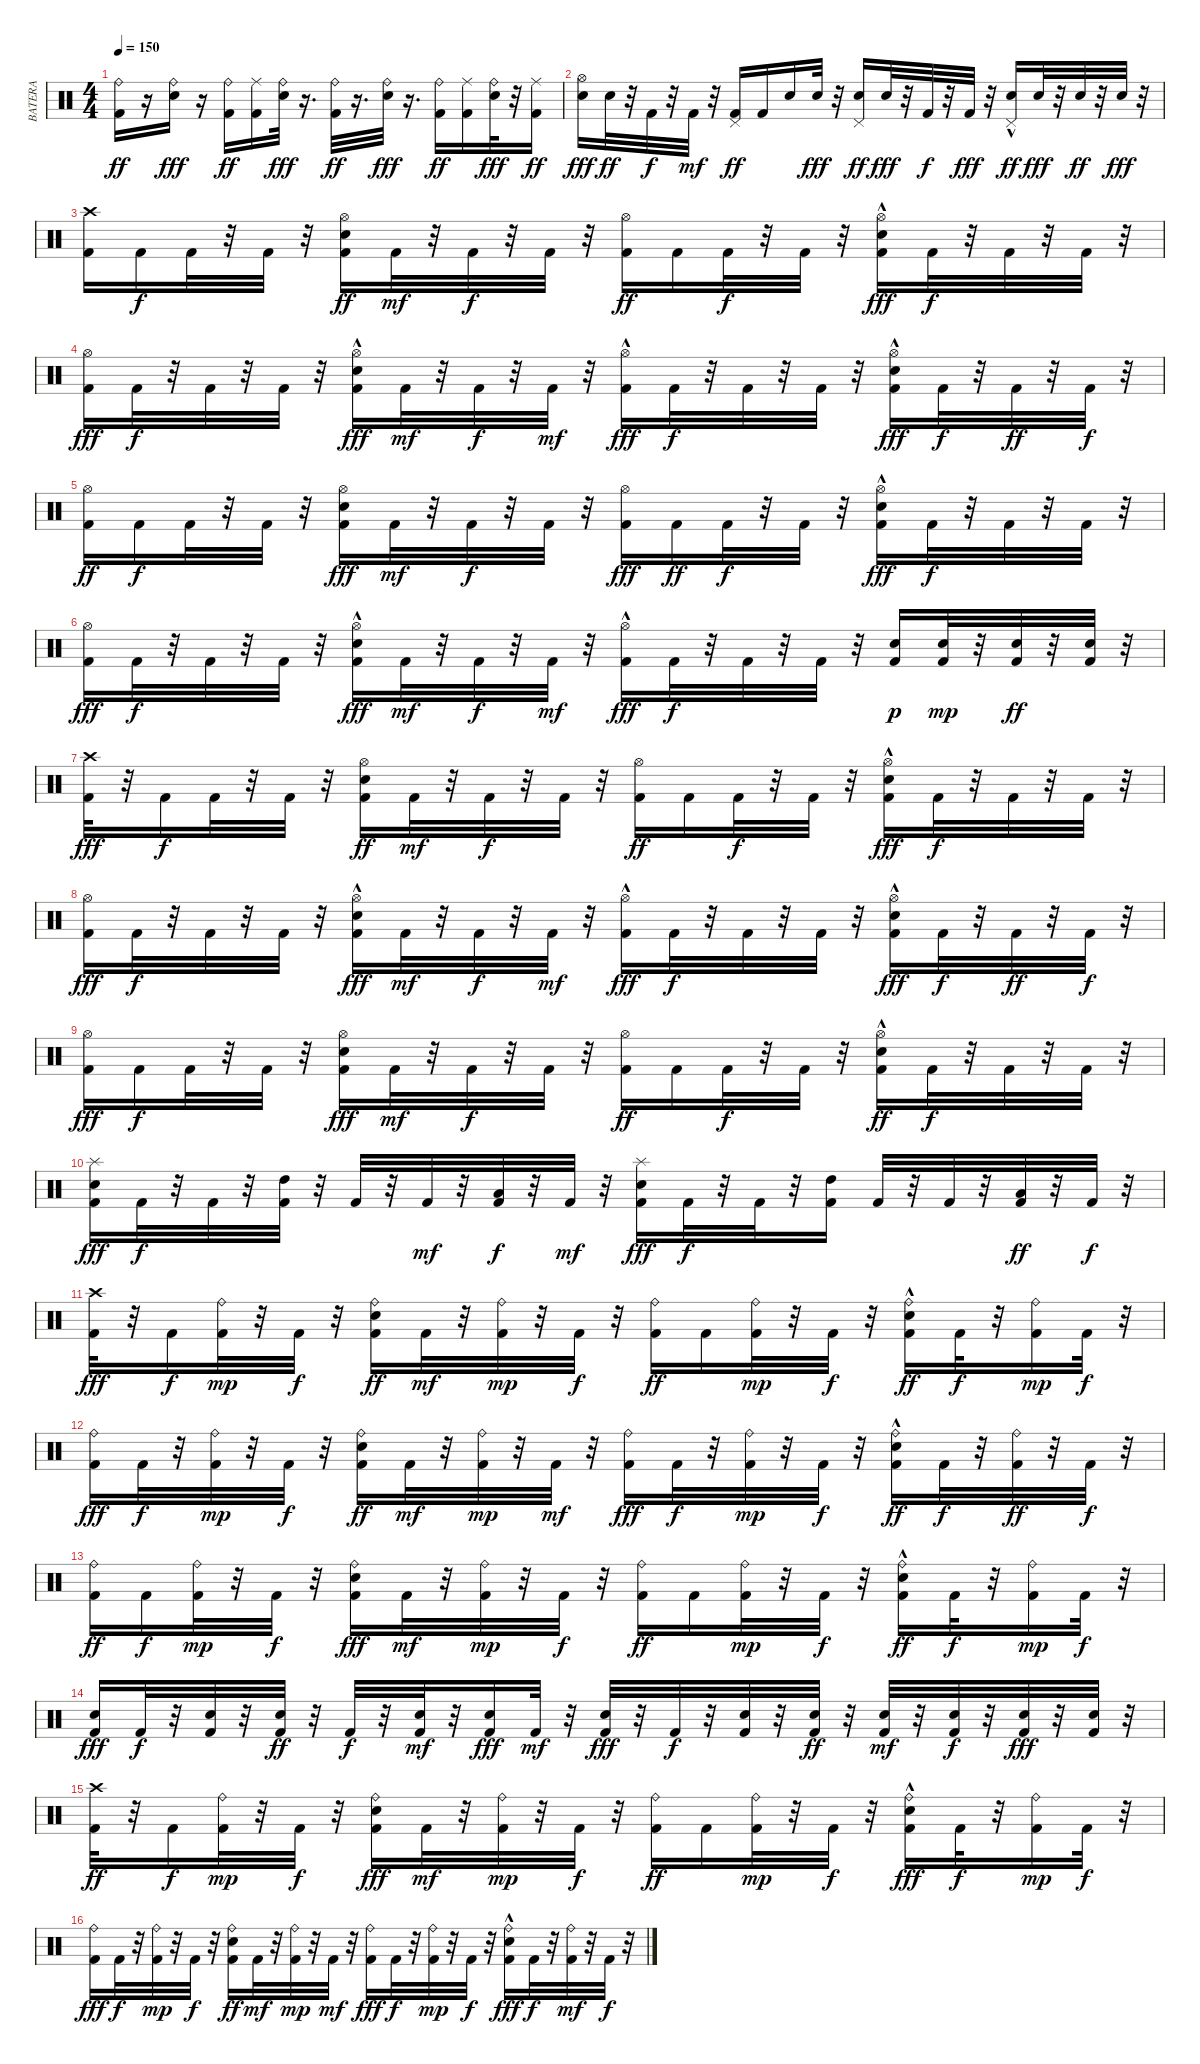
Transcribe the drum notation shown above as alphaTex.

\track ("BATERA" "BATERA") {instrument percussion}
\staff {score}
\articulation defaults
\ts (4 4)
\tempo 150
\clef neutral
\ks c
("Ride (bell)" "Kick (hit) 2").16{dy ff} r.16 ("Electric Snare (hit)" "Ride (bell)").16{dy fff} r.16 ("Ride (bell)" "Kick (hit) 2").16{dy ff} ("Ride (middle)" "Kick (hit) 2").16 ("Electric Snare (hit)" "Ride (bell)").32{dy fff} r.16{d} ("Ride (bell)" "Kick (hit) 2").32{dy ff} r.16{d} ("Electric Snare (hit)" "Ride (bell)").32{dy fff} r.16{d} ("Ride (bell)" "Kick (hit) 2").16{dy ff} ("Kick (hit) 2" "Ride (middle)").16 ("Ride (bell)" "Electric Snare (hit)").32{dy fff} r.32 ("Kick (hit) 2" "Ride (middle)").16{dy ff} |
("Electric Snare (hit)" "Hi-Hat (open)").16{dy fff} "Electric Snare (hit)".32{dy ff} r.32 "Kick (hit) 2".32{dy f} r.32 "Kick (hit) 2".32{dy mf} r.32 ("Kick (hit) 2" "Pedal Hi-Hat (hit)").16{dy ff} "Kick (hit) 2".16 "Electric Snare (hit)".16 "Electric Snare (hit)".32{dy fff} r.32 ("Electric Snare (hit)" "Pedal Hi-Hat (hit)").16{dy ff} "Electric Snare (hit)".32{dy fff} r.32 "Kick (hit) 2".32{dy f} r.32 "Kick (hit) 2".32{dy fff} r.32 ("Electric Snare (hit)" "Pedal Hi-Hat (hit)"{hac}).16{dy ff} "Electric Snare (hit)".32{dy fff} r.32 "Electric Snare (hit)".32{dy ff} r.32 "Electric Snare (hit)".32{dy fff} r.32 |
("Kick (hit) 2" "Crash high (hit)").16 "Kick (hit) 2".16{dy f} "Kick (hit) 2".32 r.32 "Kick (hit) 2".32 r.32 ("Electric Snare (hit)" "Hi-Hat (open)" "Kick (hit) 2").16{dy ff} "Kick (hit) 2".32{dy mf} r.32 "Kick (hit) 2".32{dy f} r.32 "Kick (hit) 2".32 r.32 ("Hi-Hat (open)" "Kick (hit) 2").16{dy ff} "Kick (hit) 2".16 "Kick (hit) 2".32{dy f} r.32 "Kick (hit) 2".32 r.32 ("Kick (hit) 2" "Electric Snare (hit)"{hac} "Hi-Hat (open)").16{dy fff} "Kick (hit) 2".32{dy f} r.32 "Kick (hit) 2".32 r.32 "Kick (hit) 2".32 r.32 |
("Hi-Hat (open)" "Kick (hit) 2").16{dy fff} "Kick (hit) 2".32{dy f} r.32 "Kick (hit) 2".32 r.32 "Kick (hit) 2".32 r.32 ("Kick (hit) 2" "Hi-Hat (open)"{hac} "Electric Snare (hit)").16{dy fff} "Kick (hit) 2".32{dy mf} r.32 "Kick (hit) 2".32{dy f} r.32 "Kick (hit) 2".32{dy mf} r.32 ("Hi-Hat (open)"{hac} "Kick (hit) 2").16{dy fff} "Kick (hit) 2".32{dy f} r.32 "Kick (hit) 2".32 r.32 "Kick (hit) 2".32 r.32 ("Electric Snare (hit)"{hac} "Hi-Hat (open)"{hac} "Kick (hit) 2").16{dy fff} "Kick (hit) 2".32{dy f} r.32 "Kick (hit) 2".32{dy ff} r.32 "Kick (hit) 2".32{dy f} r.32 |
("Hi-Hat (open)" "Kick (hit) 2").16{dy ff} "Kick (hit) 2".16{dy f} "Kick (hit) 2".32 r.32 "Kick (hit) 2".32 r.32 ("Kick (hit) 2" "Hi-Hat (open)" "Electric Snare (hit)").16{dy fff} "Kick (hit) 2".32{dy mf} r.32 "Kick (hit) 2".32{dy f} r.32 "Kick (hit) 2".32 r.32 ("Kick (hit) 2" "Hi-Hat (open)").16{dy fff} "Kick (hit) 2".16{dy ff} "Kick (hit) 2".32{dy f} r.32 "Kick (hit) 2".32 r.32 ("Kick (hit) 2" "Hi-Hat (open)" "Electric Snare (hit)"{hac}).16{dy fff} "Kick (hit) 2".32{dy f} r.32 "Kick (hit) 2".32 r.32 "Kick (hit) 2".32 r.32 |
("Kick (hit) 2" "Hi-Hat (open)").16{dy fff} "Kick (hit) 2".32{dy f} r.32 "Kick (hit) 2".32 r.32 "Kick (hit) 2".32 r.32 ("Electric Snare (hit)" "Kick (hit) 2" "Hi-Hat (open)"{hac}).16{dy fff} "Kick (hit) 2".32{dy mf} r.32 "Kick (hit) 2".32{dy f} r.32 "Kick (hit) 2".32{dy mf} r.32 ("Hi-Hat (open)"{hac} "Kick (hit) 2").16{dy fff} "Kick (hit) 2".32{dy f} r.32 "Kick (hit) 2".32 r.32 "Kick (hit) 2".32 r.32 ("Electric Snare (hit)" "Kick (hit) 2").16{dy p} ("Electric Snare (hit)" "Kick (hit) 2").32{dy mp} r.32 ("Kick (hit) 2" "Electric Snare (hit)").32{dy ff} r.32 ("Electric Snare (hit)" "Kick (hit) 2").32 r.32 |
("Kick (hit) 2" "Crash high (hit)").32{dy fff} r.32 "Kick (hit) 2".16{dy f} "Kick (hit) 2".32 r.32 "Kick (hit) 2".32 r.32 ("Electric Snare (hit)" "Hi-Hat (open)" "Kick (hit) 2").16{dy ff} "Kick (hit) 2".32{dy mf} r.32 "Kick (hit) 2".32{dy f} r.32 "Kick (hit) 2".32 r.32 ("Hi-Hat (open)" "Kick (hit) 2").16{dy ff} "Kick (hit) 2".16 "Kick (hit) 2".32{dy f} r.32 "Kick (hit) 2".32 r.32 ("Hi-Hat (open)" "Kick (hit) 2" "Electric Snare (hit)"{hac}).16{dy fff} "Kick (hit) 2".32{dy f} r.32 "Kick (hit) 2".32 r.32 "Kick (hit) 2".32 r.32 |
("Hi-Hat (open)" "Kick (hit) 2").16{dy fff} "Kick (hit) 2".32{dy f} r.32 "Kick (hit) 2".32 r.32 "Kick (hit) 2".32 r.32 ("Kick (hit) 2" "Hi-Hat (open)"{hac} "Electric Snare (hit)").16{dy fff} "Kick (hit) 2".32{dy mf} r.32 "Kick (hit) 2".32{dy f} r.32 "Kick (hit) 2".32{dy mf} r.32 ("Kick (hit) 2" "Hi-Hat (open)"{hac}).16{dy fff} "Kick (hit) 2".32{dy f} r.32 "Kick (hit) 2".32 r.32 "Kick (hit) 2".32 r.32 ("Hi-Hat (open)"{hac} "Kick (hit) 2" "Electric Snare (hit)"{hac}).16{dy fff} "Kick (hit) 2".32{dy f} r.32 "Kick (hit) 2".32{dy ff} r.32 "Kick (hit) 2".32{dy f} r.32 |
("Kick (hit) 2" "Hi-Hat (open)").16{dy fff} "Kick (hit) 2".16{dy f} "Kick (hit) 2".32 r.32 "Kick (hit) 2".32 r.32 ("Hi-Hat (open)" "Kick (hit) 2" "Electric Snare (hit)").16{dy fff} "Kick (hit) 2".32{dy mf} r.32 "Kick (hit) 2".32{dy f} r.32 "Kick (hit) 2".32 r.32 ("Hi-Hat (open)" "Kick (hit) 2").16{dy ff} "Kick (hit) 2".16 "Kick (hit) 2".32{dy f} r.32 "Kick (hit) 2".32 r.32 ("Hi-Hat (open)" "Electric Snare (hit)"{hac} "Kick (hit) 2").16{dy ff} "Kick (hit) 2".32{dy f} r.32 "Kick (hit) 2".32 r.32 "Kick (hit) 2".32 r.32 |
("Splash (hit)" "Electric Snare (hit)" "Kick (hit) 2").16{dy fff} "Kick (hit) 2".32{dy f} r.32 "Kick (hit) 2".32 r.32 ("High Tom (hit)" "Kick (hit) 2").32 r.32 "Kick (hit) 2".32 r.32 "Kick (hit) 2".32{dy mf} r.32 ("Kick (hit) 2" "Low Tom (hit)").32{dy f} r.32 "Kick (hit) 2".32{dy mf} r.32 ("Electric Snare (hit)" "Splash (hit)" "Kick (hit) 2").16{dy fff} "Kick (hit) 2".32{dy f} r.32 "Kick (hit) 2".32 r.32 ("Kick (hit) 2" "High Tom (hit)").16 "Kick (hit) 2".32 r.32 "Kick (hit) 2".32 r.32 ("Low Tom (hit)" "Kick (hit) 2").32{dy ff} r.32 "Kick (hit) 2".32{dy f} r.32 |
("Kick (hit) 2" "Crash high (hit)").32{dy fff} r.32 "Kick (hit) 2".16{dy f} ("Ride (bell)" "Kick (hit) 2").32{dy mp} r.32 "Kick (hit) 2".32{dy f} r.32 ("Ride (bell)" "Electric Snare (hit)" "Kick (hit) 2").16{dy ff} "Kick (hit) 2".32{dy mf} r.32 ("Ride (bell)" "Kick (hit) 2").32{dy mp} r.32 "Kick (hit) 2".32{dy f} r.32 ("Kick (hit) 2" "Ride (bell)").16{dy ff} "Kick (hit) 2".16 ("Kick (hit) 2" "Ride (bell)").32{dy mp} r.32 "Kick (hit) 2".32{dy f} r.32 ("Electric Snare (hit)"{hac} "Ride (bell)" "Kick (hit) 2").16{dy ff} "Kick (hit) 2".32{dy f} r.32 ("Ride (bell)" "Kick (hit) 2").16{dy mp} "Kick (hit) 2".32{dy f} r.32 |
("Ride (bell)" "Kick (hit) 2").16{dy fff} "Kick (hit) 2".32{dy f} r.32 ("Kick (hit) 2" "Ride (bell)").32{dy mp} r.32 "Kick (hit) 2".32{dy f} r.32 ("Electric Snare (hit)" "Kick (hit) 2" "Ride (bell)").16{dy ff} "Kick (hit) 2".32{dy mf} r.32 ("Ride (bell)" "Kick (hit) 2").32{dy mp} r.32 "Kick (hit) 2".32{dy mf} r.32 ("Ride (bell)" "Kick (hit) 2").16{dy fff} "Kick (hit) 2".32{dy f} r.32 ("Ride (bell)" "Kick (hit) 2").32{dy mp} r.32 "Kick (hit) 2".32{dy f} r.32 ("Electric Snare (hit)"{hac} "Kick (hit) 2" "Ride (bell)").16{dy ff} "Kick (hit) 2".32{dy f} r.32 ("Ride (bell)" "Kick (hit) 2").32{dy ff} r.32 "Kick (hit) 2".32{dy f} r.32 |
("Ride (bell)" "Kick (hit) 2").16{dy ff} "Kick (hit) 2".16{dy f} ("Ride (bell)" "Kick (hit) 2").32{dy mp} r.32 "Kick (hit) 2".32{dy f} r.32 ("Electric Snare (hit)" "Kick (hit) 2" "Ride (bell)").16{dy fff} "Kick (hit) 2".32{dy mf} r.32 ("Ride (bell)" "Kick (hit) 2").32{dy mp} r.32 "Kick (hit) 2".32{dy f} r.32 ("Ride (bell)" "Kick (hit) 2").16{dy ff} "Kick (hit) 2".16 ("Ride (bell)" "Kick (hit) 2").32{dy mp} r.32 "Kick (hit) 2".32{dy f} r.32 ("Electric Snare (hit)"{hac} "Ride (bell)" "Kick (hit) 2").16{dy ff} "Kick (hit) 2".32{dy f} r.32 ("Ride (bell)" "Kick (hit) 2").16{dy mp} "Kick (hit) 2".32{dy f} r.32 |
("Kick (hit) 2" "Electric Snare (hit)").16{dy fff} "Kick (hit) 2".32{dy f} r.32 ("Kick (hit) 2" "Electric Snare (hit)").32 r.32 ("Electric Snare (hit)" "Kick (hit) 2").32{dy ff} r.32 "Kick (hit) 2".32{dy f} r.32 ("Kick (hit) 2" "Electric Snare (hit)").32{dy mf} r.32 ("Electric Snare (hit)" "Kick (hit) 2").16{dy fff} "Kick (hit) 2".32{dy mf} r.32 ("Electric Snare (hit)" "Kick (hit) 2").32{dy fff} r.32 "Kick (hit) 2".32{dy f} r.32 ("Kick (hit) 2" "Electric Snare (hit)").32 r.32 ("Kick (hit) 2" "Electric Snare (hit)").32{dy ff} r.32 ("Electric Snare (hit)" "Kick (hit) 2").32{dy mf} r.32 ("Electric Snare (hit)" "Kick (hit) 2").32{dy f} r.32 ("Kick (hit) 2" "Electric Snare (hit)").32{dy fff} r.32 ("Kick (hit) 2" "Electric Snare (hit)").32 r.32 |
("Crash high (hit)" "Kick (hit) 2").32{dy ff} r.32 "Kick (hit) 2".16{dy f} ("Kick (hit) 2" "Ride (bell)").32{dy mp} r.32 "Kick (hit) 2".32{dy f} r.32 ("Kick (hit) 2" "Ride (bell)" "Electric Snare (hit)").16{dy fff} "Kick (hit) 2".32{dy mf} r.32 ("Ride (bell)" "Kick (hit) 2").32{dy mp} r.32 "Kick (hit) 2".32{dy f} r.32 ("Ride (bell)" "Kick (hit) 2").16{dy ff} "Kick (hit) 2".16 ("Kick (hit) 2" "Ride (bell)").32{dy mp} r.32 "Kick (hit) 2".32{dy f} r.32 ("Ride (bell)" "Kick (hit) 2" "Electric Snare (hit)"{hac}).16{dy fff} "Kick (hit) 2".32{dy f} r.32 ("Kick (hit) 2" "Ride (bell)").16{dy mp} "Kick (hit) 2".32{dy f} r.32 |
("Ride (bell)" "Kick (hit) 2").16{dy fff} "Kick (hit) 2".32{dy f} r.32 ("Ride (bell)" "Kick (hit) 2").32{dy mp} r.32 "Kick (hit) 2".32{dy f} r.32 ("Kick (hit) 2" "Electric Snare (hit)" "Ride (bell)").16{dy ff} "Kick (hit) 2".32{dy mf} r.32 ("Kick (hit) 2" "Ride (bell)").32{dy mp} r.32 "Kick (hit) 2".32{dy mf} r.32 ("Kick (hit) 2" "Ride (bell)").16{dy fff} "Kick (hit) 2".32{dy f} r.32 ("Kick (hit) 2" "Ride (bell)").32{dy mp} r.32 "Kick (hit) 2".32{dy f} r.32 ("Kick (hit) 2" "Ride (bell)" "Electric Snare (hit)"{hac}).16{dy fff} "Kick (hit) 2".32{dy f} r.32 ("Kick (hit) 2" "Ride (bell)").32{dy mf} r.32 "Kick (hit) 2".32{dy f} r.32
